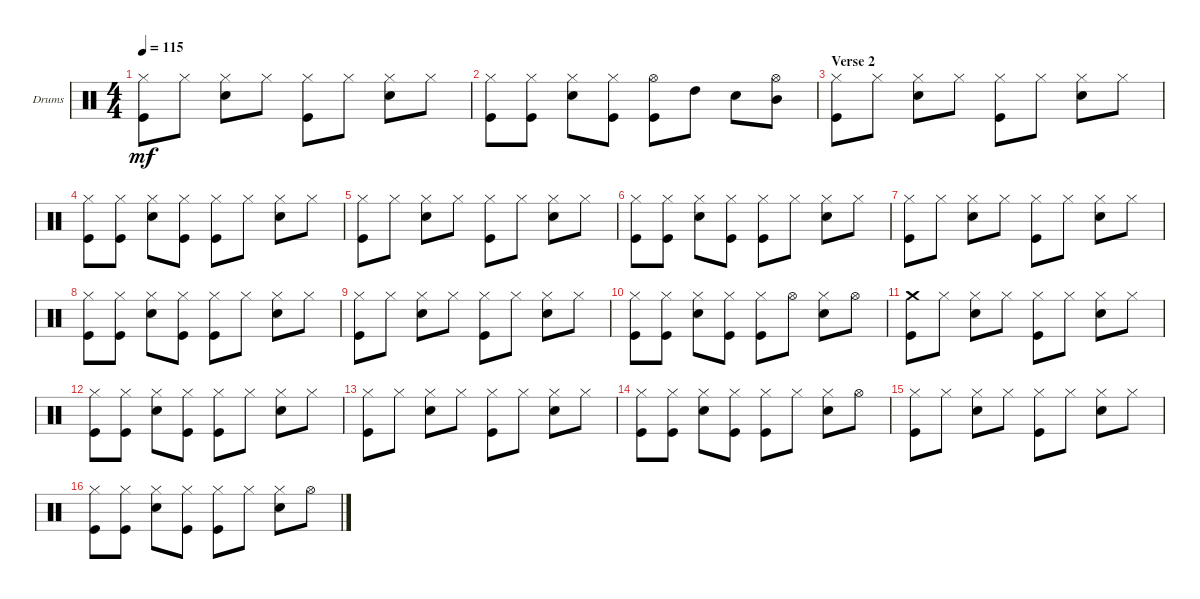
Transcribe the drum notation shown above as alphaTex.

\defaultSystemsLayout 4
\bracketExtendMode groupsimilarinstruments
\firstSystemTrackNameOrientation horizontal
\otherSystemsTrackNameOrientation horizontal
\track ("Drumkit (Curt Cress)" "Drums") {instrument percussion}
\staff {score}
\articulation defaults
\ts (4 4)
\tempo 115
\clef neutral
\scale
1.02648
\ks c
("Kick (hit)" "Hi-Hat (closed)").8{dy mf} "Hi-Hat (closed)".8 ("Hi-Hat (closed)" "Snare (hit) 2").8 "Hi-Hat (closed)".8 ("Hi-Hat (closed)" "Kick (hit)").8 "Hi-Hat (closed)".8 ("Hi-Hat (closed)" "Snare (hit) 2").8 "Hi-Hat (closed)".8 |
\scale
0.973518 ("Kick (hit)" "Hi-Hat (closed)").8 ("Hi-Hat (closed)" "Kick (hit)").8 ("Hi-Hat (closed)" "Snare (hit) 2").8 ("Hi-Hat (closed)" "Kick (hit)").8 ("Hi-Hat (open)" "Kick (hit)").8 "High Tom (hit)".8 "Snare (hit) 2".8 ("Mid Tom (hit)" "Hi-Hat (open)").8 |
\section ("" "Verse 2")
\scale
1.02648 ("Kick (hit)" "Hi-Hat (closed)").8 "Hi-Hat (closed)".8 ("Hi-Hat (closed)" "Snare (hit) 2").8 "Hi-Hat (closed)".8 ("Hi-Hat (closed)" "Kick (hit)").8 "Hi-Hat (closed)".8 ("Hi-Hat (closed)" "Snare (hit) 2").8 "Hi-Hat (closed)".8 |
\scale
0.973518 ("Kick (hit)" "Hi-Hat (closed)").8 ("Hi-Hat (closed)" "Kick (hit)").8 ("Hi-Hat (closed)" "Snare (hit) 2").8 ("Hi-Hat (closed)" "Kick (hit)").8 ("Hi-Hat (closed)" "Kick (hit)").8 "Hi-Hat (closed)".8 ("Hi-Hat (closed)" "Snare (hit) 2").8 "Hi-Hat (closed)".8 |
\scale
1.02648 ("Kick (hit)" "Hi-Hat (closed)").8 "Hi-Hat (closed)".8 ("Hi-Hat (closed)" "Snare (hit) 2").8 "Hi-Hat (closed)".8 ("Hi-Hat (closed)" "Kick (hit)").8 "Hi-Hat (closed)".8 ("Hi-Hat (closed)" "Snare (hit) 2").8 "Hi-Hat (closed)".8 |
\scale
0.973518 ("Kick (hit)" "Hi-Hat (closed)").8 ("Hi-Hat (closed)" "Kick (hit)").8 ("Hi-Hat (closed)" "Snare (hit) 2").8 ("Hi-Hat (closed)" "Kick (hit)").8 ("Hi-Hat (closed)" "Kick (hit)").8 "Hi-Hat (closed)".8 ("Hi-Hat (closed)" "Snare (hit) 2").8 "Hi-Hat (closed)".8 |
\scale
1.02648 ("Kick (hit)" "Hi-Hat (closed)").8 "Hi-Hat (closed)".8 ("Hi-Hat (closed)" "Snare (hit) 2").8 "Hi-Hat (closed)".8 ("Hi-Hat (closed)" "Kick (hit)").8 "Hi-Hat (closed)".8 ("Hi-Hat (closed)" "Snare (hit) 2").8 "Hi-Hat (closed)".8 |
\scale
0.973518 ("Kick (hit)" "Hi-Hat (closed)").8 ("Hi-Hat (closed)" "Kick (hit)").8 ("Hi-Hat (closed)" "Snare (hit) 2").8 ("Hi-Hat (closed)" "Kick (hit)").8 ("Hi-Hat (closed)" "Kick (hit)").8 "Hi-Hat (closed)".8 ("Hi-Hat (closed)" "Snare (hit) 2").8 "Hi-Hat (closed)".8 |
\scale
1.02648 ("Kick (hit)" "Hi-Hat (closed)").8 "Hi-Hat (closed)".8 ("Hi-Hat (closed)" "Snare (hit) 2").8 "Hi-Hat (closed)".8 ("Hi-Hat (closed)" "Kick (hit)").8 "Hi-Hat (closed)".8 ("Hi-Hat (closed)" "Snare (hit) 2").8 "Hi-Hat (closed)".8 |
\scale
0.973518 ("Kick (hit)" "Hi-Hat (closed)").8 ("Hi-Hat (closed)" "Kick (hit)").8 ("Hi-Hat (closed)" "Snare (hit) 2").8 ("Hi-Hat (closed)" "Kick (hit)").8 ("Hi-Hat (closed)" "Kick (hit)").8 "Hi-Hat (open)".8 ("Hi-Hat (closed)" "Snare (hit) 2").8 "Hi-Hat (open)".8 |
\scale
1.02648 ("Kick (hit)" "Crash medium (hit)").8 "Hi-Hat (closed)".8 ("Hi-Hat (closed)" "Snare (hit) 2").8 "Hi-Hat (closed)".8 ("Hi-Hat (closed)" "Kick (hit)").8 "Hi-Hat (closed)".8 ("Hi-Hat (closed)" "Snare (hit) 2").8 "Hi-Hat (closed)".8 |
\scale
0.973518 ("Kick (hit)" "Hi-Hat (closed)").8 ("Hi-Hat (closed)" "Kick (hit)").8 ("Hi-Hat (closed)" "Snare (hit) 2").8 ("Hi-Hat (closed)" "Kick (hit)").8 ("Hi-Hat (closed)" "Kick (hit)").8 "Hi-Hat (closed)".8 ("Hi-Hat (closed)" "Snare (hit) 2").8 "Hi-Hat (closed)".8 |
\scale
1.02648 ("Kick (hit)" "Hi-Hat (closed)").8 "Hi-Hat (closed)".8 ("Hi-Hat (closed)" "Snare (hit) 2").8 "Hi-Hat (closed)".8 ("Hi-Hat (closed)" "Kick (hit)").8 "Hi-Hat (closed)".8 ("Hi-Hat (closed)" "Snare (hit) 2").8 "Hi-Hat (closed)".8 |
\scale
0.973518 ("Kick (hit)" "Hi-Hat (closed)").8 ("Hi-Hat (closed)" "Kick (hit)").8 ("Hi-Hat (closed)" "Snare (hit) 2").8 ("Hi-Hat (closed)" "Kick (hit)").8 ("Hi-Hat (closed)" "Kick (hit)").8 "Hi-Hat (closed)".8 ("Hi-Hat (closed)" "Snare (hit) 2").8 "Hi-Hat (open)".8 |
\scale
1.02648 ("Kick (hit)" "Hi-Hat (closed)").8 "Hi-Hat (closed)".8 ("Hi-Hat (closed)" "Snare (hit) 2").8 "Hi-Hat (closed)".8 ("Hi-Hat (closed)" "Kick (hit)").8 "Hi-Hat (closed)".8 ("Hi-Hat (closed)" "Snare (hit) 2").8 "Hi-Hat (closed)".8 |
\scale
0.973518 ("Kick (hit)" "Hi-Hat (closed)").8 ("Hi-Hat (closed)" "Kick (hit)").8 ("Hi-Hat (closed)" "Snare (hit) 2").8 ("Hi-Hat (closed)" "Kick (hit)").8 ("Hi-Hat (closed)" "Kick (hit)").8 "Hi-Hat (closed)".8 ("Hi-Hat (closed)" "Snare (hit) 2").8 "Hi-Hat (open)".8
